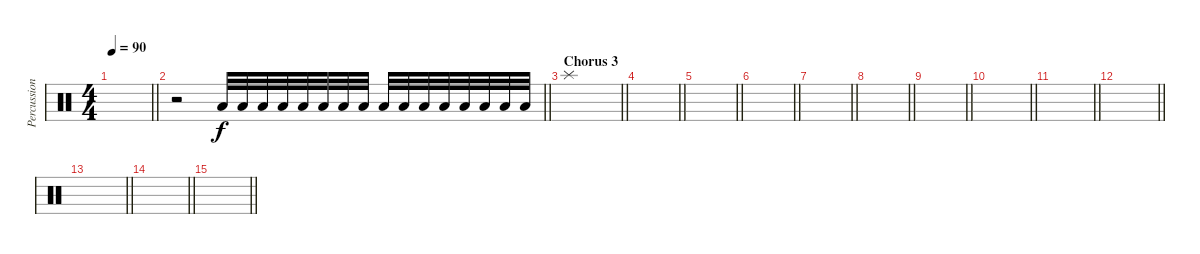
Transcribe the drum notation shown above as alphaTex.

\track ("Percussion" "Percussion") {mute instrument percussion}
\staff {score}
\articulation defaults
\ts (4 4)
\tempo 90
\clef neutral
\barLineRight lightlight
\ks c
|
\barLineRight lightlight
r.2{volume 7} "Low Floor Tom (hit)".32 "Low Floor Tom (hit)".32 "Low Floor Tom (hit)".32 "Low Floor Tom (hit)".32 "Low Floor Tom (hit)".32 "Low Floor Tom (hit)".32 "Low Floor Tom (hit)".32 "Low Floor Tom (hit)".32 "Low Floor Tom (hit)".32 "Low Floor Tom (hit)".32 "Low Floor Tom (hit)".32 "Low Floor Tom (hit)".32 "Low Floor Tom (hit)".32 "Low Floor Tom (hit)".32 "Low Floor Tom (hit)".32 "Low Floor Tom (hit)".32 |
\section ("" "Chorus 3")
\barLineRight lightlight "Splash (hit)".1{volume 16}
|
\barLineRight lightlight
|
\barLineRight lightlight
|
\barLineRight lightlight
|
\barLineRight lightlight
|
\barLineRight lightlight
|
\barLineRight lightlight
|
\barLineRight lightlight
|
\barLineRight lightlight
|
\barLineRight lightlight
|
\barLineRight lightlight
|
\barLineRight lightlight
|
\barLineRight lightlight
